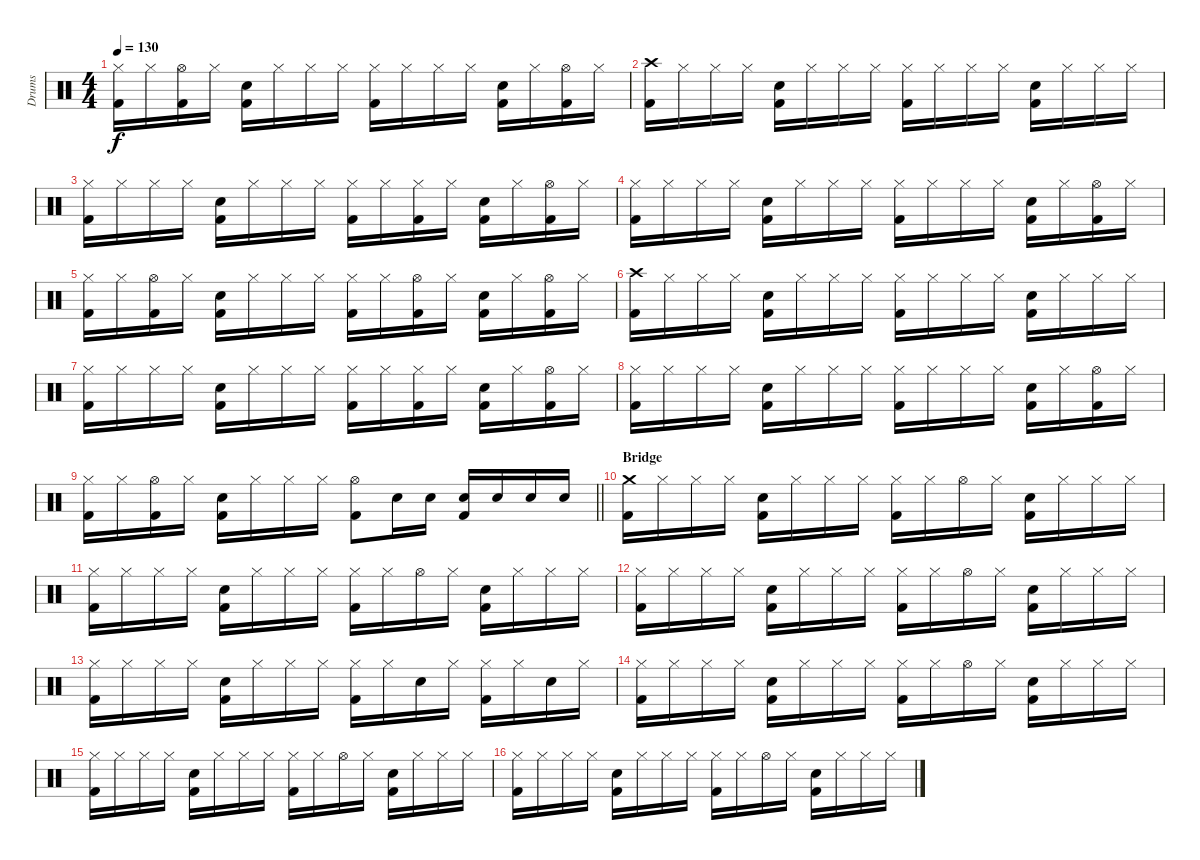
\track ("Drums" "Drums") {instrument percussion}
\staff {score}
\articulation defaults
\ts (4 4)
\tempo 130
\clef neutral
\ks c
("Hi-Hat (closed)" "Kick (hit) 2").16{dy f} "Hi-Hat (closed)".16 ("Hi-Hat (open)" "Kick (hit) 2").16 "Hi-Hat (closed)".16 ("Electric Snare (hit)" "Kick (hit) 2").16 "Hi-Hat (closed)".16 "Hi-Hat (closed)".16 "Hi-Hat (closed)".16 ("Hi-Hat (closed)" "Kick (hit) 2").16 "Hi-Hat (closed)".16 "Hi-Hat (closed)".16 "Hi-Hat (closed)".16 ("Electric Snare (hit)" "Kick (hit) 2").16 "Hi-Hat (closed)".16 ("Hi-Hat (open)" "Kick (hit) 2").16 "Hi-Hat (closed)".16 |
("Crash high (hit)" "Kick (hit) 2").16 "Hi-Hat (closed)".16 "Hi-Hat (closed)".16 "Hi-Hat (closed)".16 ("Electric Snare (hit)" "Kick (hit) 2").16 "Hi-Hat (closed)".16 "Hi-Hat (closed)".16 "Hi-Hat (closed)".16 ("Hi-Hat (closed)" "Kick (hit) 2").16 "Hi-Hat (closed)".16 "Hi-Hat (closed)".16 "Hi-Hat (closed)".16 ("Electric Snare (hit)" "Kick (hit) 2").16 "Hi-Hat (closed)".16 "Hi-Hat (closed)".16 "Hi-Hat (closed)".16 |
("Hi-Hat (closed)" "Kick (hit) 2").16 "Hi-Hat (closed)".16 "Hi-Hat (closed)".16 "Hi-Hat (closed)".16 ("Electric Snare (hit)" "Kick (hit) 2").16 "Hi-Hat (closed)".16 "Hi-Hat (closed)".16 "Hi-Hat (closed)".16 ("Hi-Hat (closed)" "Kick (hit) 2").16 "Hi-Hat (closed)".16 ("Hi-Hat (closed)" "Kick (hit) 2").16 "Hi-Hat (closed)".16 ("Electric Snare (hit)" "Kick (hit) 2").16 "Hi-Hat (closed)".16 ("Hi-Hat (open)" "Kick (hit) 2").16 "Hi-Hat (closed)".16 |
("Hi-Hat (closed)" "Kick (hit) 2").16 "Hi-Hat (closed)".16 "Hi-Hat (closed)".16 "Hi-Hat (closed)".16 ("Electric Snare (hit)" "Kick (hit) 2").16 "Hi-Hat (closed)".16 "Hi-Hat (closed)".16 "Hi-Hat (closed)".16 ("Hi-Hat (closed)" "Kick (hit) 2").16 "Hi-Hat (closed)".16 "Hi-Hat (closed)".16 "Hi-Hat (closed)".16 ("Electric Snare (hit)" "Kick (hit) 2").16 "Hi-Hat (closed)".16 ("Hi-Hat (open)" "Kick (hit) 2").16 "Hi-Hat (closed)".16 |
("Hi-Hat (closed)" "Kick (hit) 2").16 "Hi-Hat (closed)".16 ("Hi-Hat (open)" "Kick (hit) 2").16 "Hi-Hat (closed)".16 ("Electric Snare (hit)" "Kick (hit) 2").16 "Hi-Hat (closed)".16 "Hi-Hat (closed)".16 "Hi-Hat (closed)".16 ("Hi-Hat (closed)" "Kick (hit) 2").16 "Hi-Hat (closed)".16 ("Hi-Hat (open)" "Kick (hit) 2").16 "Hi-Hat (closed)".16 ("Electric Snare (hit)" "Kick (hit) 2").16 "Hi-Hat (closed)".16 ("Hi-Hat (open)" "Kick (hit) 2").16 "Hi-Hat (closed)".16 |
("Crash high (hit)" "Kick (hit) 2").16 "Hi-Hat (closed)".16 "Hi-Hat (closed)".16 "Hi-Hat (closed)".16 ("Electric Snare (hit)" "Kick (hit) 2").16 "Hi-Hat (closed)".16 "Hi-Hat (closed)".16 "Hi-Hat (closed)".16 ("Hi-Hat (closed)" "Kick (hit) 2").16 "Hi-Hat (closed)".16 "Hi-Hat (closed)".16 "Hi-Hat (closed)".16 ("Electric Snare (hit)" "Kick (hit) 2").16 "Hi-Hat (closed)".16 "Hi-Hat (closed)".16 "Hi-Hat (closed)".16 |
("Hi-Hat (closed)" "Kick (hit) 2").16 "Hi-Hat (closed)".16 "Hi-Hat (closed)".16 "Hi-Hat (closed)".16 ("Electric Snare (hit)" "Kick (hit) 2").16 "Hi-Hat (closed)".16 "Hi-Hat (closed)".16 "Hi-Hat (closed)".16 ("Hi-Hat (closed)" "Kick (hit) 2").16 "Hi-Hat (closed)".16 ("Hi-Hat (closed)" "Kick (hit) 2").16 "Hi-Hat (closed)".16 ("Electric Snare (hit)" "Kick (hit) 2").16 "Hi-Hat (closed)".16 ("Hi-Hat (open)" "Kick (hit) 2").16 "Hi-Hat (closed)".16 |
("Hi-Hat (closed)" "Kick (hit) 2").16 "Hi-Hat (closed)".16 "Hi-Hat (closed)".16 "Hi-Hat (closed)".16 ("Electric Snare (hit)" "Kick (hit) 2").16 "Hi-Hat (closed)".16 "Hi-Hat (closed)".16 "Hi-Hat (closed)".16 ("Hi-Hat (closed)" "Kick (hit) 2").16 "Hi-Hat (closed)".16 "Hi-Hat (closed)".16 "Hi-Hat (closed)".16 ("Electric Snare (hit)" "Kick (hit) 2").16 "Hi-Hat (closed)".16 ("Hi-Hat (open)" "Kick (hit) 2").16 "Hi-Hat (closed)".16 |
\barLineRight lightlight
("Hi-Hat (closed)" "Kick (hit) 2").16 "Hi-Hat (closed)".16 ("Hi-Hat (open)" "Kick (hit) 2").16 "Hi-Hat (closed)".16 ("Electric Snare (hit)" "Kick (hit) 2").16 "Hi-Hat (closed)".16 "Hi-Hat (closed)".16 "Hi-Hat (closed)".16 ("Hi-Hat (open)" "Kick (hit) 2").8 "Electric Snare (hit)".16 "Electric Snare (hit)".16 ("Electric Snare (hit)" "Kick (hit) 2").16 "Electric Snare (hit)".16 "Electric Snare (hit)".16 "Electric Snare (hit)".16 |
\section ("" "Bridge")
("Crash medium (hit)" "Kick (hit) 2").16 "Hi-Hat (closed)".16 "Hi-Hat (closed)".16 "Hi-Hat (closed)".16 ("Electric Snare (hit)" "Kick (hit) 2").16 "Hi-Hat (closed)".16 "Hi-Hat (closed)".16 "Hi-Hat (closed)".16 ("Hi-Hat (closed)" "Kick (hit) 2").16 "Hi-Hat (closed)".16 "Hi-Hat (open)".16 "Hi-Hat (closed)".16 ("Electric Snare (hit)" "Kick (hit) 2").16 "Hi-Hat (closed)".16 "Hi-Hat (closed)".16 "Hi-Hat (closed)".16 |
("Hi-Hat (closed)" "Kick (hit) 2").16 "Hi-Hat (closed)".16 "Hi-Hat (closed)".16 "Hi-Hat (closed)".16 ("Electric Snare (hit)" "Kick (hit) 2").16 "Hi-Hat (closed)".16 "Hi-Hat (closed)".16 "Hi-Hat (closed)".16 ("Hi-Hat (closed)" "Kick (hit) 2").16 "Hi-Hat (closed)".16 "Hi-Hat (open)".16 "Hi-Hat (closed)".16 ("Electric Snare (hit)" "Kick (hit) 2").16 "Hi-Hat (closed)".16 "Hi-Hat (closed)".16 "Hi-Hat (closed)".16 |
("Hi-Hat (closed)" "Kick (hit) 2").16 "Hi-Hat (closed)".16 "Hi-Hat (closed)".16 "Hi-Hat (closed)".16 ("Electric Snare (hit)" "Kick (hit) 2").16 "Hi-Hat (closed)".16 "Hi-Hat (closed)".16 "Hi-Hat (closed)".16 ("Hi-Hat (closed)" "Kick (hit) 2").16 "Hi-Hat (closed)".16 "Hi-Hat (open)".16 "Hi-Hat (closed)".16 ("Electric Snare (hit)" "Kick (hit) 2").16 "Hi-Hat (closed)".16 "Hi-Hat (closed)".16 "Hi-Hat (closed)".16 |
("Hi-Hat (closed)" "Kick (hit) 2").16 "Hi-Hat (closed)".16 "Hi-Hat (closed)".16 "Hi-Hat (closed)".16 ("Electric Snare (hit)" "Kick (hit) 2").16 "Hi-Hat (closed)".16 "Hi-Hat (closed)".16 "Hi-Hat (closed)".16 ("Hi-Hat (closed)" "Kick (hit) 2").16 "Hi-Hat (closed)".16 "Electric Snare (hit)".16 "Hi-Hat (closed)".16 ("Hi-Hat (closed)" "Kick (hit) 2").16 "Hi-Hat (closed)".16 "Electric Snare (hit)".16 "Hi-Hat (closed)".16 |
("Hi-Hat (closed)" "Kick (hit) 2").16 "Hi-Hat (closed)".16 "Hi-Hat (closed)".16 "Hi-Hat (closed)".16 ("Electric Snare (hit)" "Kick (hit) 2").16 "Hi-Hat (closed)".16 "Hi-Hat (closed)".16 "Hi-Hat (closed)".16 ("Hi-Hat (closed)" "Kick (hit) 2").16 "Hi-Hat (closed)".16 "Hi-Hat (open)".16 "Hi-Hat (closed)".16 ("Electric Snare (hit)" "Kick (hit) 2").16 "Hi-Hat (closed)".16 "Hi-Hat (closed)".16 "Hi-Hat (closed)".16 |
("Hi-Hat (closed)" "Kick (hit) 2").16 "Hi-Hat (closed)".16 "Hi-Hat (closed)".16 "Hi-Hat (closed)".16 ("Electric Snare (hit)" "Kick (hit) 2").16 "Hi-Hat (closed)".16 "Hi-Hat (closed)".16 "Hi-Hat (closed)".16 ("Hi-Hat (closed)" "Kick (hit) 2").16 "Hi-Hat (closed)".16 "Hi-Hat (open)".16 "Hi-Hat (closed)".16 ("Electric Snare (hit)" "Kick (hit) 2").16 "Hi-Hat (closed)".16 "Hi-Hat (closed)".16 "Hi-Hat (closed)".16 |
("Hi-Hat (closed)" "Kick (hit) 2").16 "Hi-Hat (closed)".16 "Hi-Hat (closed)".16 "Hi-Hat (closed)".16 ("Electric Snare (hit)" "Kick (hit) 2").16 "Hi-Hat (closed)".16 "Hi-Hat (closed)".16 "Hi-Hat (closed)".16 ("Hi-Hat (closed)" "Kick (hit) 2").16 "Hi-Hat (closed)".16 "Hi-Hat (open)".16 "Hi-Hat (closed)".16 ("Electric Snare (hit)" "Kick (hit) 2").16 "Hi-Hat (closed)".16 "Hi-Hat (closed)".16 "Hi-Hat (closed)".16
